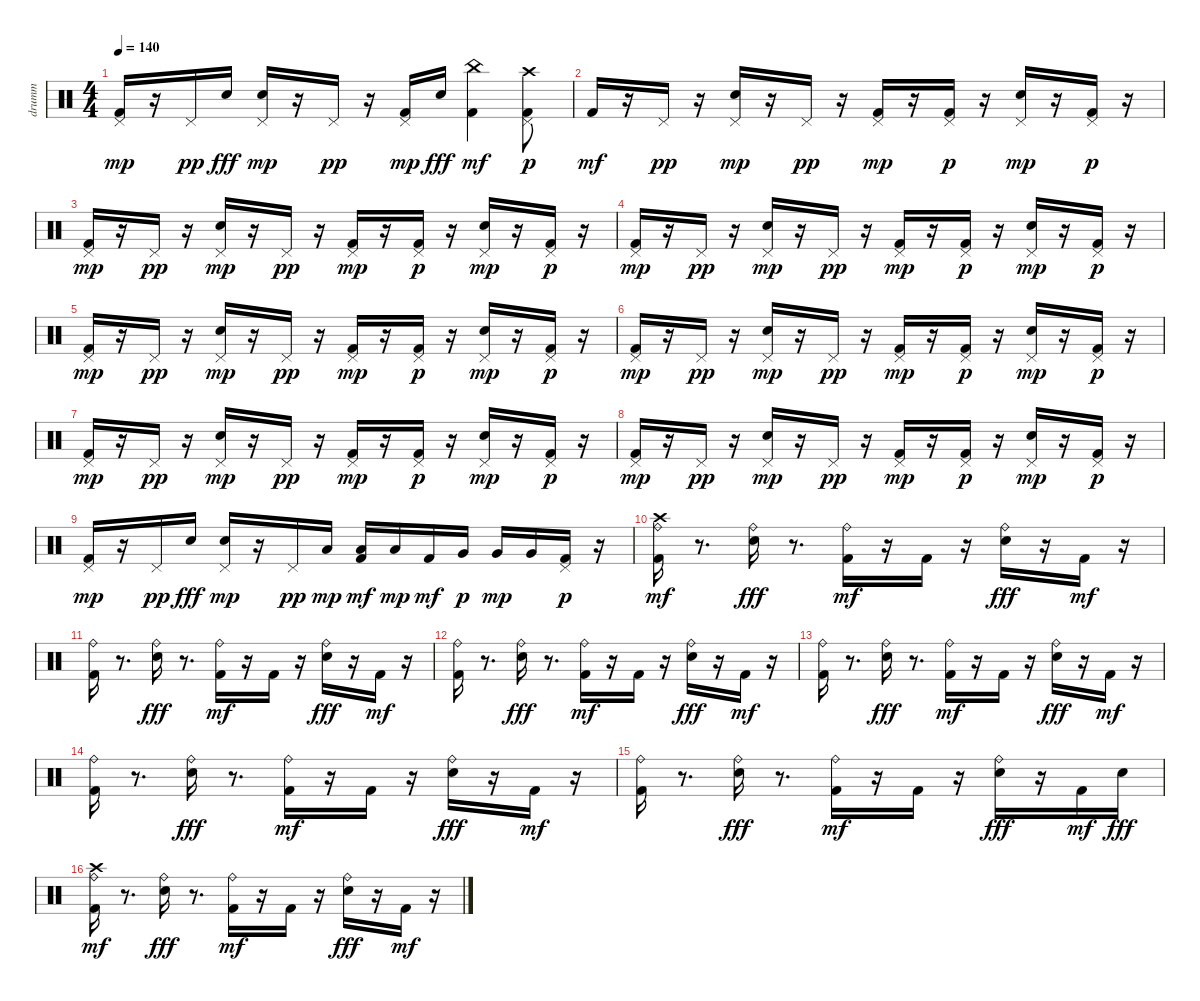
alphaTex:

\track ("drumm" "drumm") {instrument percussion}
\staff {score}
\articulation defaults
\ts (4 4)
\tempo 140
\clef neutral
\ks c
("Kick (hit) 2" "Pedal Hi-Hat (hit)").16{dy mp} r.16 "Pedal Hi-Hat (hit)".16{dy pp} "Electric Snare (hit)".16{dy fff} ("Electric Snare (hit)" "Pedal Hi-Hat (hit)").16{dy mp} r.16 "Pedal Hi-Hat (hit)".16{dy pp} r.16 ("Kick (hit) 2" "Pedal Hi-Hat (hit)").16{dy mp} "Electric Snare (hit)".16{dy fff} ("China (hit)" "Kick (hit) 2").4{dy mf} ("Crash high (hit)" "Kick (hit) 2" "Pedal Hi-Hat (hit)").8{dy p} |
"Kick (hit) 2".16{dy mf} r.16 "Pedal Hi-Hat (hit)".16{dy pp} r.16 ("Electric Snare (hit)" "Pedal Hi-Hat (hit)").16{dy mp} r.16 "Pedal Hi-Hat (hit)".16{dy pp} r.16 ("Kick (hit) 2" "Pedal Hi-Hat (hit)").16{dy mp} r.16 ("Kick (hit) 2" "Pedal Hi-Hat (hit)").16{dy p} r.16 ("Electric Snare (hit)" "Pedal Hi-Hat (hit)").16{dy mp} r.16 ("Kick (hit) 2" "Pedal Hi-Hat (hit)").16{dy p} r.16 |
("Kick (hit) 2" "Pedal Hi-Hat (hit)").16{dy mp} r.16 "Pedal Hi-Hat (hit)".16{dy pp} r.16 ("Electric Snare (hit)" "Pedal Hi-Hat (hit)").16{dy mp} r.16 "Pedal Hi-Hat (hit)".16{dy pp} r.16 ("Kick (hit) 2" "Pedal Hi-Hat (hit)").16{dy mp} r.16 ("Kick (hit) 2" "Pedal Hi-Hat (hit)").16{dy p} r.16 ("Electric Snare (hit)" "Pedal Hi-Hat (hit)").16{dy mp} r.16 ("Kick (hit) 2" "Pedal Hi-Hat (hit)").16{dy p} r.16 |
("Kick (hit) 2" "Pedal Hi-Hat (hit)").16{dy mp} r.16 "Pedal Hi-Hat (hit)".16{dy pp} r.16 ("Electric Snare (hit)" "Pedal Hi-Hat (hit)").16{dy mp} r.16 "Pedal Hi-Hat (hit)".16{dy pp} r.16 ("Kick (hit) 2" "Pedal Hi-Hat (hit)").16{dy mp} r.16 ("Kick (hit) 2" "Pedal Hi-Hat (hit)").16{dy p} r.16 ("Electric Snare (hit)" "Pedal Hi-Hat (hit)").16{dy mp} r.16 ("Kick (hit) 2" "Pedal Hi-Hat (hit)").16{dy p} r.16 |
("Kick (hit) 2" "Pedal Hi-Hat (hit)").16{dy mp} r.16 "Pedal Hi-Hat (hit)".16{dy pp} r.16 ("Electric Snare (hit)" "Pedal Hi-Hat (hit)").16{dy mp} r.16 "Pedal Hi-Hat (hit)".16{dy pp} r.16 ("Kick (hit) 2" "Pedal Hi-Hat (hit)").16{dy mp} r.16 ("Kick (hit) 2" "Pedal Hi-Hat (hit)").16{dy p} r.16 ("Electric Snare (hit)" "Pedal Hi-Hat (hit)").16{dy mp} r.16 ("Kick (hit) 2" "Pedal Hi-Hat (hit)").16{dy p} r.16 |
("Kick (hit) 2" "Pedal Hi-Hat (hit)").16{dy mp} r.16 "Pedal Hi-Hat (hit)".16{dy pp} r.16 ("Electric Snare (hit)" "Pedal Hi-Hat (hit)").16{dy mp} r.16 "Pedal Hi-Hat (hit)".16{dy pp} r.16 ("Kick (hit) 2" "Pedal Hi-Hat (hit)").16{dy mp} r.16 ("Kick (hit) 2" "Pedal Hi-Hat (hit)").16{dy p} r.16 ("Electric Snare (hit)" "Pedal Hi-Hat (hit)").16{dy mp} r.16 ("Kick (hit) 2" "Pedal Hi-Hat (hit)").16{dy p} r.16 |
("Kick (hit) 2" "Pedal Hi-Hat (hit)").16{dy mp} r.16 "Pedal Hi-Hat (hit)".16{dy pp} r.16 ("Electric Snare (hit)" "Pedal Hi-Hat (hit)").16{dy mp} r.16 "Pedal Hi-Hat (hit)".16{dy pp} r.16 ("Kick (hit) 2" "Pedal Hi-Hat (hit)").16{dy mp} r.16 ("Kick (hit) 2" "Pedal Hi-Hat (hit)").16{dy p} r.16 ("Electric Snare (hit)" "Pedal Hi-Hat (hit)").16{dy mp} r.16 ("Kick (hit) 2" "Pedal Hi-Hat (hit)").16{dy p} r.16 |
("Kick (hit) 2" "Pedal Hi-Hat (hit)").16{dy mp} r.16 "Pedal Hi-Hat (hit)".16{dy pp} r.16 ("Electric Snare (hit)" "Pedal Hi-Hat (hit)").16{dy mp} r.16 "Pedal Hi-Hat (hit)".16{dy pp} r.16 ("Kick (hit) 2" "Pedal Hi-Hat (hit)").16{dy mp} r.16 ("Kick (hit) 2" "Pedal Hi-Hat (hit)").16{dy p} r.16 ("Electric Snare (hit)" "Pedal Hi-Hat (hit)").16{dy mp} r.16 ("Kick (hit) 2" "Pedal Hi-Hat (hit)").16{dy p} r.16 |
("Kick (hit) 2" "Pedal Hi-Hat (hit)").16{dy mp} r.16 "Pedal Hi-Hat (hit)".16{dy pp} "Electric Snare (hit)".16{dy fff} ("Electric Snare (hit)" "Pedal Hi-Hat (hit)").16{dy mp} r.16 "Pedal Hi-Hat (hit)".16{dy pp} "Low Tom (hit)".16{dy mp} ("Low Tom (hit)" "Kick (hit) 2").16{dy mf} "Low Tom (hit)".16{dy mp} "Kick (hit) 2".16{dy mf} "Very Low Tom (hit)".16{dy p} "Very Low Tom (hit)".16{dy mp} "Very Low Tom (hit)".16 ("Kick (hit) 2" "Pedal Hi-Hat (hit)").16{dy p} r.16 |
("Crash high (hit)" "Ride (bell)" "Kick (hit) 2").16{dy mf} r.8{d} ("Ride (bell)" "Electric Snare (hit)").16{dy fff} r.8{d} ("Ride (bell)" "Kick (hit) 2").16{dy mf} r.16 "Kick (hit) 2".16 r.16 ("Ride (bell)" "Electric Snare (hit)").16{dy fff} r.16 "Kick (hit) 2".16{dy mf} r.16 |
("Ride (bell)" "Kick (hit) 2").16 r.8{d} ("Ride (bell)" "Electric Snare (hit)").16{dy fff} r.8{d} ("Ride (bell)" "Kick (hit) 2").16{dy mf} r.16 "Kick (hit) 2".16 r.16 ("Ride (bell)" "Electric Snare (hit)").16{dy fff} r.16 "Kick (hit) 2".16{dy mf} r.16 |
("Ride (bell)" "Kick (hit) 2").16 r.8{d} ("Ride (bell)" "Electric Snare (hit)").16{dy fff} r.8{d} ("Ride (bell)" "Kick (hit) 2").16{dy mf} r.16 "Kick (hit) 2".16 r.16 ("Ride (bell)" "Electric Snare (hit)").16{dy fff} r.16 "Kick (hit) 2".16{dy mf} r.16 |
("Ride (bell)" "Kick (hit) 2").16 r.8{d} ("Ride (bell)" "Electric Snare (hit)").16{dy fff} r.8{d} ("Ride (bell)" "Kick (hit) 2").16{dy mf} r.16 "Kick (hit) 2".16 r.16 ("Ride (bell)" "Electric Snare (hit)").16{dy fff} r.16 "Kick (hit) 2".16{dy mf} r.16 |
("Ride (bell)" "Kick (hit) 2").16 r.8{d} ("Ride (bell)" "Electric Snare (hit)").16{dy fff} r.8{d} ("Ride (bell)" "Kick (hit) 2").16{dy mf} r.16 "Kick (hit) 2".16 r.16 ("Ride (bell)" "Electric Snare (hit)").16{dy fff} r.16 "Kick (hit) 2".16{dy mf} r.16 |
("Ride (bell)" "Kick (hit) 2").16 r.8{d} ("Ride (bell)" "Electric Snare (hit)").16{dy fff} r.8{d} ("Ride (bell)" "Kick (hit) 2").16{dy mf} r.16 "Kick (hit) 2".16 r.16 ("Ride (bell)" "Electric Snare (hit)").16{dy fff} r.16 "Kick (hit) 2".16{dy mf} "Electric Snare (hit)".16{dy fff} |
("Crash high (hit)" "Ride (bell)" "Kick (hit) 2").16{dy mf} r.8{d} ("Ride (bell)" "Electric Snare (hit)").16{dy fff} r.8{d} ("Ride (bell)" "Kick (hit) 2").16{dy mf} r.16 "Kick (hit) 2".16 r.16 ("Ride (bell)" "Electric Snare (hit)").16{dy fff} r.16 "Kick (hit) 2".16{dy mf} r.16
